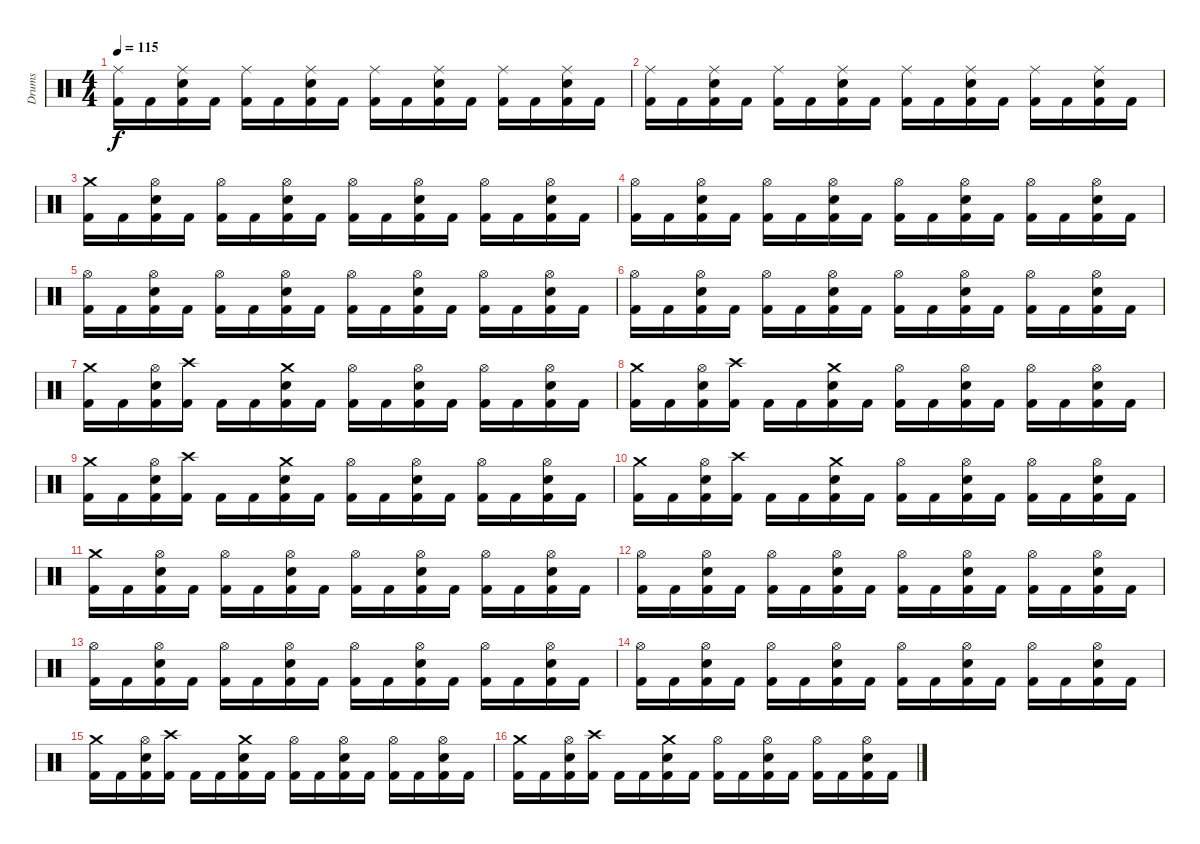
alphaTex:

\track ("Drums" "Drums") {instrument percussion}
\staff {score}
\articulation defaults
\ts (4 4)
\tempo 115
\clef neutral
\ks c
("Ride (middle)" "Kick (hit) 2").16{dy f} "Kick (hit) 2".16 ("Ride (middle)" "Electric Snare (hit)" "Kick (hit) 2").16 "Kick (hit) 2".16 ("Ride (middle)" "Kick (hit) 2").16 "Kick (hit) 2".16 ("Ride (middle)" "Electric Snare (hit)" "Kick (hit) 2").16 "Kick (hit) 2".16 ("Ride (middle)" "Kick (hit) 2").16 "Kick (hit) 2".16 ("Ride (middle)" "Electric Snare (hit)" "Kick (hit) 2").16 "Kick (hit) 2".16 ("Ride (middle)" "Kick (hit) 2").16 "Kick (hit) 2".16 ("Ride (middle)" "Electric Snare (hit)" "Kick (hit) 2").16 "Kick (hit) 2".16 |
("Ride (middle)" "Kick (hit) 2").16 "Kick (hit) 2".16 ("Ride (middle)" "Electric Snare (hit)" "Kick (hit) 2").16 "Kick (hit) 2".16 ("Ride (middle)" "Kick (hit) 2").16 "Kick (hit) 2".16 ("Ride (middle)" "Electric Snare (hit)" "Kick (hit) 2").16 "Kick (hit) 2".16 ("Ride (middle)" "Kick (hit) 2").16 "Kick (hit) 2".16 ("Ride (middle)" "Electric Snare (hit)" "Kick (hit) 2").16 "Kick (hit) 2".16 ("Ride (middle)" "Kick (hit) 2").16 "Kick (hit) 2".16 ("Ride (middle)" "Electric Snare (hit)" "Kick (hit) 2").16 "Kick (hit) 2".16 |
("Crash medium (hit)" "Kick (hit) 2").16 "Kick (hit) 2".16 ("Hi-Hat (open)" "Electric Snare (hit)" "Kick (hit) 2").16 "Kick (hit) 2".16 ("Hi-Hat (open)" "Kick (hit) 2").16 "Kick (hit) 2".16 ("Hi-Hat (open)" "Electric Snare (hit)" "Kick (hit) 2").16 "Kick (hit) 2".16 ("Hi-Hat (open)" "Kick (hit) 2").16 "Kick (hit) 2".16 ("Hi-Hat (open)" "Electric Snare (hit)" "Kick (hit) 2").16 "Kick (hit) 2".16 ("Hi-Hat (open)" "Kick (hit) 2").16 "Kick (hit) 2".16 ("Hi-Hat (open)" "Electric Snare (hit)" "Kick (hit) 2").16 "Kick (hit) 2".16 |
("Hi-Hat (open)" "Kick (hit) 2").16 "Kick (hit) 2".16 ("Hi-Hat (open)" "Electric Snare (hit)" "Kick (hit) 2").16 "Kick (hit) 2".16 ("Hi-Hat (open)" "Kick (hit) 2").16 "Kick (hit) 2".16 ("Hi-Hat (open)" "Electric Snare (hit)" "Kick (hit) 2").16 "Kick (hit) 2".16 ("Hi-Hat (open)" "Kick (hit) 2").16 "Kick (hit) 2".16 ("Hi-Hat (open)" "Electric Snare (hit)" "Kick (hit) 2").16 "Kick (hit) 2".16 ("Hi-Hat (open)" "Kick (hit) 2").16 "Kick (hit) 2".16 ("Hi-Hat (open)" "Electric Snare (hit)" "Kick (hit) 2").16 "Kick (hit) 2".16 |
("Hi-Hat (open)" "Kick (hit) 2").16 "Kick (hit) 2".16 ("Hi-Hat (open)" "Electric Snare (hit)" "Kick (hit) 2").16 "Kick (hit) 2".16 ("Hi-Hat (open)" "Kick (hit) 2").16 "Kick (hit) 2".16 ("Hi-Hat (open)" "Electric Snare (hit)" "Kick (hit) 2").16 "Kick (hit) 2".16 ("Hi-Hat (open)" "Kick (hit) 2").16 "Kick (hit) 2".16 ("Hi-Hat (open)" "Electric Snare (hit)" "Kick (hit) 2").16 "Kick (hit) 2".16 ("Hi-Hat (open)" "Kick (hit) 2").16 "Kick (hit) 2".16 ("Hi-Hat (open)" "Electric Snare (hit)" "Kick (hit) 2").16 "Kick (hit) 2".16 |
("Hi-Hat (open)" "Kick (hit) 2").16 "Kick (hit) 2".16 ("Hi-Hat (open)" "Electric Snare (hit)" "Kick (hit) 2").16 "Kick (hit) 2".16 ("Hi-Hat (open)" "Kick (hit) 2").16 "Kick (hit) 2".16 ("Hi-Hat (open)" "Electric Snare (hit)" "Kick (hit) 2").16 "Kick (hit) 2".16 ("Hi-Hat (open)" "Kick (hit) 2").16 "Kick (hit) 2".16 ("Hi-Hat (open)" "Electric Snare (hit)" "Kick (hit) 2").16 "Kick (hit) 2".16 ("Hi-Hat (open)" "Kick (hit) 2").16 "Kick (hit) 2".16 ("Hi-Hat (open)" "Electric Snare (hit)" "Kick (hit) 2").16 "Kick (hit) 2".16 |
("Crash medium (hit)" "Kick (hit) 2").16 "Kick (hit) 2".16 ("Hi-Hat (open)" "Electric Snare (hit)" "Kick (hit) 2").16 ("Crash high (hit)" "Kick (hit) 2").16 "Kick (hit) 2".16 "Kick (hit) 2".16 ("Crash medium (hit)" "Electric Snare (hit)" "Kick (hit) 2").16 "Kick (hit) 2".16 ("Hi-Hat (open)" "Kick (hit) 2").16 "Kick (hit) 2".16 ("Hi-Hat (open)" "Electric Snare (hit)" "Kick (hit) 2").16 "Kick (hit) 2".16 ("Hi-Hat (open)" "Kick (hit) 2").16 "Kick (hit) 2".16 ("Hi-Hat (open)" "Electric Snare (hit)" "Kick (hit) 2").16 "Kick (hit) 2".16 |
("Crash medium (hit)" "Kick (hit) 2").16 "Kick (hit) 2".16 ("Hi-Hat (open)" "Electric Snare (hit)" "Kick (hit) 2").16 ("Crash high (hit)" "Kick (hit) 2").16 "Kick (hit) 2".16 "Kick (hit) 2".16 ("Crash medium (hit)" "Electric Snare (hit)" "Kick (hit) 2").16 "Kick (hit) 2".16 ("Hi-Hat (open)" "Kick (hit) 2").16 "Kick (hit) 2".16 ("Hi-Hat (open)" "Electric Snare (hit)" "Kick (hit) 2").16 "Kick (hit) 2".16 ("Hi-Hat (open)" "Kick (hit) 2").16 "Kick (hit) 2".16 ("Hi-Hat (open)" "Electric Snare (hit)" "Kick (hit) 2").16 "Kick (hit) 2".16 |
("Crash medium (hit)" "Kick (hit) 2").16 "Kick (hit) 2".16 ("Hi-Hat (open)" "Electric Snare (hit)" "Kick (hit) 2").16 ("Crash high (hit)" "Kick (hit) 2").16 "Kick (hit) 2".16 "Kick (hit) 2".16 ("Crash medium (hit)" "Electric Snare (hit)" "Kick (hit) 2").16 "Kick (hit) 2".16 ("Hi-Hat (open)" "Kick (hit) 2").16 "Kick (hit) 2".16 ("Hi-Hat (open)" "Electric Snare (hit)" "Kick (hit) 2").16 "Kick (hit) 2".16 ("Hi-Hat (open)" "Kick (hit) 2").16 "Kick (hit) 2".16 ("Hi-Hat (open)" "Electric Snare (hit)" "Kick (hit) 2").16 "Kick (hit) 2".16 |
("Crash medium (hit)" "Kick (hit) 2").16 "Kick (hit) 2".16 ("Hi-Hat (open)" "Electric Snare (hit)" "Kick (hit) 2").16 ("Crash high (hit)" "Kick (hit) 2").16 "Kick (hit) 2".16 "Kick (hit) 2".16 ("Crash medium (hit)" "Electric Snare (hit)" "Kick (hit) 2").16 "Kick (hit) 2".16 ("Hi-Hat (open)" "Kick (hit) 2").16 "Kick (hit) 2".16 ("Hi-Hat (open)" "Electric Snare (hit)" "Kick (hit) 2").16 "Kick (hit) 2".16 ("Hi-Hat (open)" "Kick (hit) 2").16 "Kick (hit) 2".16 ("Hi-Hat (open)" "Electric Snare (hit)" "Kick (hit) 2").16 "Kick (hit) 2".16 |
("Crash medium (hit)" "Kick (hit) 2").16 "Kick (hit) 2".16 ("Hi-Hat (open)" "Electric Snare (hit)" "Kick (hit) 2").16 "Kick (hit) 2".16 ("Hi-Hat (open)" "Kick (hit) 2").16 "Kick (hit) 2".16 ("Hi-Hat (open)" "Electric Snare (hit)" "Kick (hit) 2").16 "Kick (hit) 2".16 ("Hi-Hat (open)" "Kick (hit) 2").16 "Kick (hit) 2".16 ("Hi-Hat (open)" "Electric Snare (hit)" "Kick (hit) 2").16 "Kick (hit) 2".16 ("Hi-Hat (open)" "Kick (hit) 2").16 "Kick (hit) 2".16 ("Hi-Hat (open)" "Electric Snare (hit)" "Kick (hit) 2").16 "Kick (hit) 2".16 |
("Hi-Hat (open)" "Kick (hit) 2").16 "Kick (hit) 2".16 ("Hi-Hat (open)" "Electric Snare (hit)" "Kick (hit) 2").16 "Kick (hit) 2".16 ("Hi-Hat (open)" "Kick (hit) 2").16 "Kick (hit) 2".16 ("Hi-Hat (open)" "Electric Snare (hit)" "Kick (hit) 2").16 "Kick (hit) 2".16 ("Hi-Hat (open)" "Kick (hit) 2").16 "Kick (hit) 2".16 ("Hi-Hat (open)" "Electric Snare (hit)" "Kick (hit) 2").16 "Kick (hit) 2".16 ("Hi-Hat (open)" "Kick (hit) 2").16 "Kick (hit) 2".16 ("Hi-Hat (open)" "Electric Snare (hit)" "Kick (hit) 2").16 "Kick (hit) 2".16 |
("Hi-Hat (open)" "Kick (hit) 2").16 "Kick (hit) 2".16 ("Hi-Hat (open)" "Electric Snare (hit)" "Kick (hit) 2").16 "Kick (hit) 2".16 ("Hi-Hat (open)" "Kick (hit) 2").16 "Kick (hit) 2".16 ("Hi-Hat (open)" "Electric Snare (hit)" "Kick (hit) 2").16 "Kick (hit) 2".16 ("Hi-Hat (open)" "Kick (hit) 2").16 "Kick (hit) 2".16 ("Hi-Hat (open)" "Electric Snare (hit)" "Kick (hit) 2").16 "Kick (hit) 2".16 ("Hi-Hat (open)" "Kick (hit) 2").16 "Kick (hit) 2".16 ("Hi-Hat (open)" "Electric Snare (hit)" "Kick (hit) 2").16 "Kick (hit) 2".16 |
("Hi-Hat (open)" "Kick (hit) 2").16 "Kick (hit) 2".16 ("Hi-Hat (open)" "Electric Snare (hit)" "Kick (hit) 2").16 "Kick (hit) 2".16 ("Hi-Hat (open)" "Kick (hit) 2").16 "Kick (hit) 2".16 ("Hi-Hat (open)" "Electric Snare (hit)" "Kick (hit) 2").16 "Kick (hit) 2".16 ("Hi-Hat (open)" "Kick (hit) 2").16 "Kick (hit) 2".16 ("Hi-Hat (open)" "Electric Snare (hit)" "Kick (hit) 2").16 "Kick (hit) 2".16 ("Hi-Hat (open)" "Kick (hit) 2").16 "Kick (hit) 2".16 ("Hi-Hat (open)" "Electric Snare (hit)" "Kick (hit) 2").16 "Kick (hit) 2".16 |
("Crash medium (hit)" "Kick (hit) 2").16 "Kick (hit) 2".16 ("Hi-Hat (open)" "Electric Snare (hit)" "Kick (hit) 2").16 ("Crash high (hit)" "Kick (hit) 2").16 "Kick (hit) 2".16 "Kick (hit) 2".16 ("Crash medium (hit)" "Electric Snare (hit)" "Kick (hit) 2").16 "Kick (hit) 2".16 ("Hi-Hat (open)" "Kick (hit) 2").16 "Kick (hit) 2".16 ("Hi-Hat (open)" "Electric Snare (hit)" "Kick (hit) 2").16 "Kick (hit) 2".16 ("Hi-Hat (open)" "Kick (hit) 2").16 "Kick (hit) 2".16 ("Hi-Hat (open)" "Electric Snare (hit)" "Kick (hit) 2").16 "Kick (hit) 2".16 |
("Crash medium (hit)" "Kick (hit) 2").16 "Kick (hit) 2".16 ("Hi-Hat (open)" "Electric Snare (hit)" "Kick (hit) 2").16 ("Crash high (hit)" "Kick (hit) 2").16 "Kick (hit) 2".16 "Kick (hit) 2".16 ("Crash medium (hit)" "Electric Snare (hit)" "Kick (hit) 2").16 "Kick (hit) 2".16 ("Hi-Hat (open)" "Kick (hit) 2").16 "Kick (hit) 2".16 ("Hi-Hat (open)" "Electric Snare (hit)" "Kick (hit) 2").16 "Kick (hit) 2".16 ("Hi-Hat (open)" "Kick (hit) 2").16 "Kick (hit) 2".16 ("Hi-Hat (open)" "Electric Snare (hit)" "Kick (hit) 2").16 "Kick (hit) 2".16
